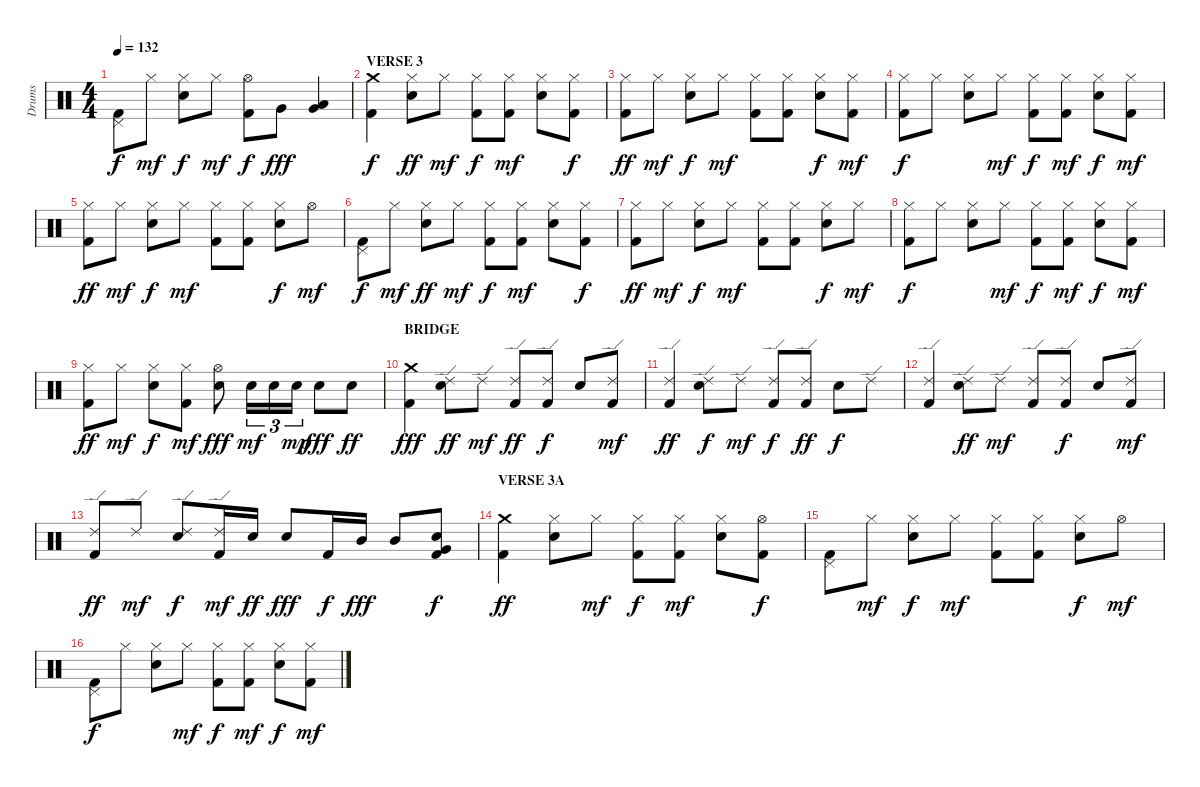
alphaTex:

\track ("Drums" "Drums") {instrument percussion}
\staff {score}
\articulation defaults
\ts (4 4)
\tempo 132
\clef neutral
\ks c
("Pedal Hi-Hat (hit)" "Kick (hit) 2").8{dy f} "Hi-Hat (closed)".8{dy mf} ("Hi-Hat (closed)" "Electric Snare (hit)").8{dy f} "Hi-Hat (closed)".8{dy mf} ("Hi-Hat (open)" "Kick (hit) 2").8{dy f} "Very Low Tom (hit)".8{dy fff} ("Low Tom (hit)" "Very Low Tom (hit)").4 |
\section ("" "VERSE 3")
("Crash medium (hit)" "Kick (hit) 2").4{dy f} ("Hi-Hat (closed)" "Electric Snare (hit)").8{dy ff} "Hi-Hat (closed)".8{dy mf} ("Hi-Hat (closed)" "Kick (hit) 2").8{dy f} ("Hi-Hat (closed)" "Kick (hit) 2").8{dy mf} ("Hi-Hat (closed)" "Electric Snare (hit)").8 ("Hi-Hat (closed)" "Kick (hit) 2").8{dy f} |
("Hi-Hat (closed)" "Kick (hit) 2").8{dy ff} "Hi-Hat (closed)".8{dy mf} ("Hi-Hat (closed)" "Electric Snare (hit)").8{dy f} "Hi-Hat (closed)".8{dy mf} ("Hi-Hat (closed)" "Kick (hit) 2").8 ("Hi-Hat (closed)" "Kick (hit) 2").8 ("Hi-Hat (closed)" "Electric Snare (hit)").8{dy f} ("Hi-Hat (closed)" "Kick (hit) 2").8{dy mf} |
("Hi-Hat (closed)" "Kick (hit) 2").8{dy f} "Hi-Hat (closed)".8 ("Hi-Hat (closed)" "Electric Snare (hit)").8 "Hi-Hat (closed)".8{dy mf} ("Hi-Hat (closed)" "Kick (hit) 2").8{dy f} ("Hi-Hat (closed)" "Kick (hit) 2").8{dy mf} ("Hi-Hat (closed)" "Electric Snare (hit)").8{dy f} ("Hi-Hat (closed)" "Kick (hit) 2").8{dy mf} |
("Hi-Hat (closed)" "Kick (hit) 2").8{dy ff} "Hi-Hat (closed)".8{dy mf} ("Hi-Hat (closed)" "Electric Snare (hit)").8{dy f} "Hi-Hat (closed)".8{dy mf} ("Hi-Hat (closed)" "Kick (hit) 2").8 ("Hi-Hat (closed)" "Kick (hit) 2").8 ("Hi-Hat (closed)" "Electric Snare (hit)").8{dy f} "Hi-Hat (open)".8{dy mf} |
("Pedal Hi-Hat (hit)" "Kick (hit) 2").8{dy f} "Hi-Hat (closed)".8{dy mf} ("Hi-Hat (closed)" "Electric Snare (hit)").8{dy ff} "Hi-Hat (closed)".8{dy mf} ("Hi-Hat (closed)" "Kick (hit) 2").8{dy f} ("Hi-Hat (closed)" "Kick (hit) 2").8{dy mf} ("Hi-Hat (closed)" "Electric Snare (hit)").8 ("Hi-Hat (closed)" "Kick (hit) 2").8{dy f} |
("Hi-Hat (closed)" "Kick (hit) 2").8{dy ff} "Hi-Hat (closed)".8{dy mf} ("Hi-Hat (closed)" "Electric Snare (hit)").8{dy f} "Hi-Hat (closed)".8{dy mf} ("Hi-Hat (closed)" "Kick (hit) 2").8 ("Hi-Hat (closed)" "Kick (hit) 2").8 ("Hi-Hat (closed)" "Electric Snare (hit)").8{dy f} "Hi-Hat (closed)".8{dy mf} |
("Hi-Hat (closed)" "Kick (hit) 2").8{dy f} "Hi-Hat (closed)".8 ("Hi-Hat (closed)" "Electric Snare (hit)").8 "Hi-Hat (closed)".8{dy mf} ("Hi-Hat (closed)" "Kick (hit) 2").8{dy f} ("Hi-Hat (closed)" "Kick (hit) 2").8{dy mf} ("Hi-Hat (closed)" "Electric Snare (hit)").8{dy f} ("Hi-Hat (closed)" "Kick (hit) 2").8{dy mf} |
("Hi-Hat (closed)" "Kick (hit) 2").8{dy ff} "Hi-Hat (closed)".8{dy mf} ("Hi-Hat (closed)" "Electric Snare (hit)").8{dy f} ("Hi-Hat (closed)" "Kick (hit) 2").8{dy mf} ("Hi-Hat (open)" "Electric Snare (hit)").8{dy fff} "Electric Snare (hit)".16{tu (3 2) dy mf} "Electric Snare (hit)".16{tu (3 2)} "Electric Snare (hit)".16{tu (3 2) dy mp} "Electric Snare (hit)".8{dy fff} "Electric Snare (hit)".8{dy ff} |
\section ("" "BRIDGE")
("Crash medium (hit)" "Kick (hit) 2").4{dy fff} ("Ride (edge) 2" "Electric Snare (hit)").8{dy ff} "Ride (edge) 2".8{dy mf} ("Ride (edge) 2" "Kick (hit) 2").8{dy ff} ("Ride (edge) 2" "Kick (hit) 2").8{dy f} "Electric Snare (hit)".8 ("Ride (edge) 2" "Kick (hit) 2").8{dy mf} |
("Ride (edge) 2" "Kick (hit) 2").4{dy ff} ("Ride (edge) 2" "Electric Snare (hit)").8{dy f} "Ride (edge) 2".8{dy mf} ("Ride (edge) 2" "Kick (hit) 2").8{dy f} ("Ride (edge) 2" "Kick (hit) 2").8{dy ff} "Electric Snare (hit)".8{dy f} "Ride (edge) 2".8 |
("Ride (edge) 2" "Kick (hit) 2").4 ("Ride (edge) 2" "Electric Snare (hit)").8{dy ff} "Ride (edge) 2".8{dy mf} ("Ride (edge) 2" "Kick (hit) 2").8 ("Ride (edge) 2" "Kick (hit) 2").8{dy f} "Electric Snare (hit)".8 ("Ride (edge) 2" "Kick (hit) 2").8{dy mf} |
("Ride (edge) 2" "Kick (hit) 2").8{dy ff} "Ride (edge) 2".8{dy mf} ("Ride (edge) 2" "Electric Snare (hit)").8{dy f} ("Ride (edge) 2" "Kick (hit) 2").16{dy mf} "Electric Snare (hit)".16{dy ff} "Electric Snare (hit)".8{dy fff} "Kick (hit) 2".16{dy f} "Mid Tom (hit)".16{dy fff} "Mid Tom (hit)".8 ("Electric Snare (hit)" "Very Low Tom (hit)" "Kick (hit) 2").8{dy f} |
\section ("" "VERSE 3A")
("Crash medium (hit)" "Kick (hit) 2").4{dy ff} ("Hi-Hat (closed)" "Electric Snare (hit)").8 "Hi-Hat (closed)".8{dy mf} ("Hi-Hat (closed)" "Kick (hit) 2").8{dy f} ("Hi-Hat (closed)" "Kick (hit) 2").8{dy mf} ("Hi-Hat (closed)" "Electric Snare (hit)").8 ("Hi-Hat (open)" "Kick (hit) 2").8{dy f} |
("Pedal Hi-Hat (hit)" "Kick (hit) 2").8 "Hi-Hat (closed)".8{dy mf} ("Hi-Hat (closed)" "Electric Snare (hit)").8{dy f} "Hi-Hat (closed)".8{dy mf} ("Hi-Hat (closed)" "Kick (hit) 2").8 ("Hi-Hat (closed)" "Kick (hit) 2").8 ("Hi-Hat (closed)" "Electric Snare (hit)").8{dy f} "Hi-Hat (open)".8{dy mf} |
("Pedal Hi-Hat (hit)" "Kick (hit) 2").8{dy f} "Hi-Hat (closed)".8 ("Hi-Hat (closed)" "Electric Snare (hit)").8 "Hi-Hat (closed)".8{dy mf} ("Hi-Hat (closed)" "Kick (hit) 2").8{dy f} ("Hi-Hat (closed)" "Kick (hit) 2").8{dy mf} ("Hi-Hat (closed)" "Electric Snare (hit)").8{dy f} ("Hi-Hat (closed)" "Kick (hit) 2").8{dy mf}
